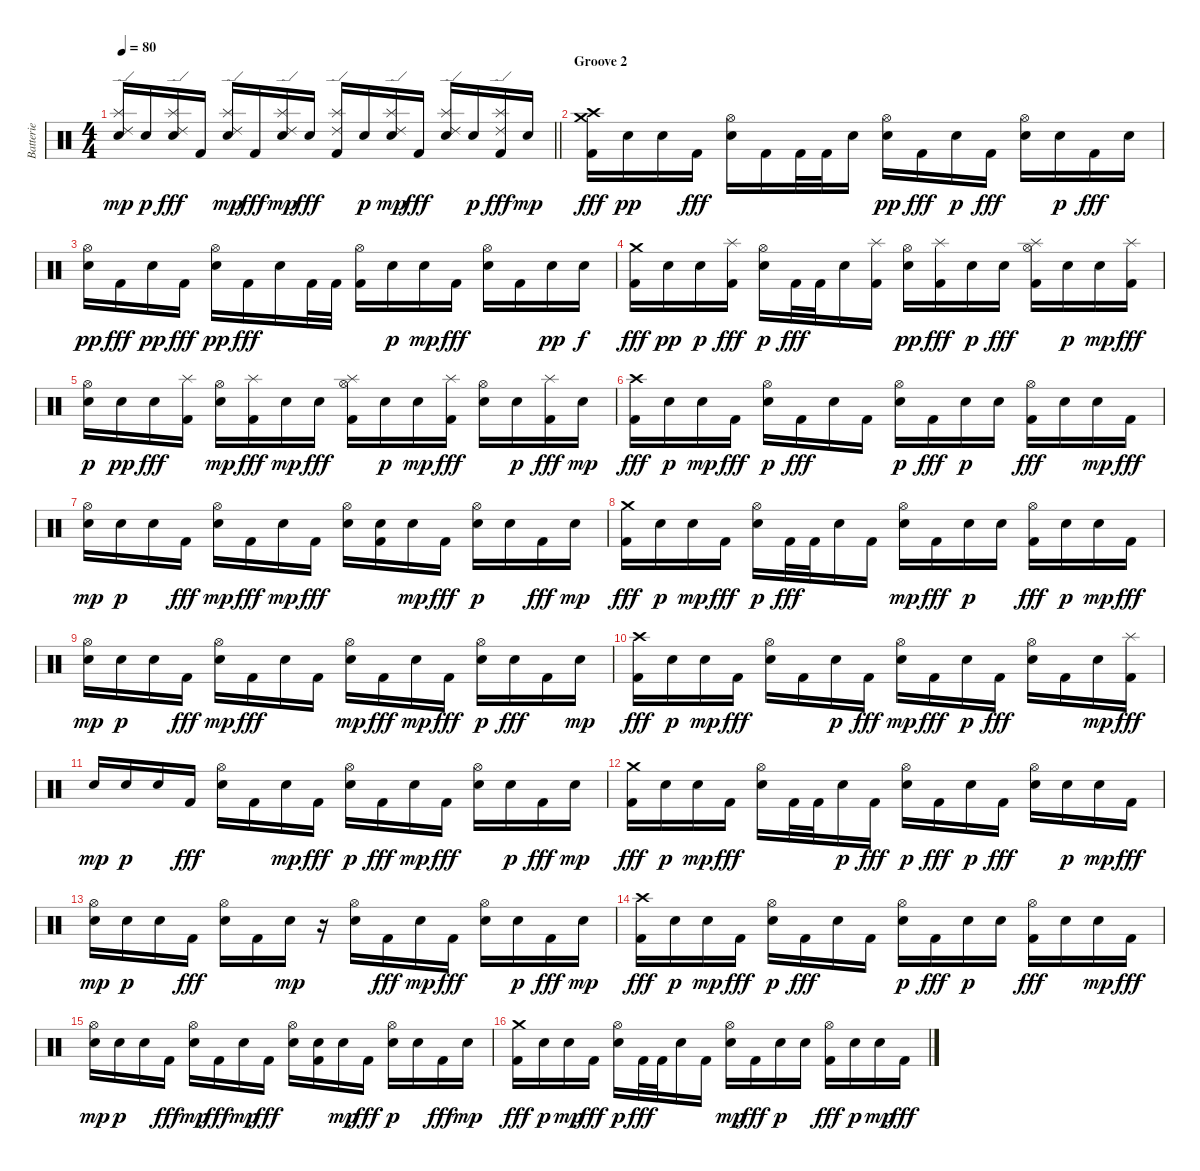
\track ("Batterie" "Batterie") {instrument percussion}
\staff {score}
\articulation defaults
\ts (4 4)
\tempo 80
\clef neutral
\barLineRight lightlight
\ks c
("Ride (edge) 2" "Splash (hit)" "Electric Snare (hit)").16{dy mp} "Electric Snare (hit)".16{dy p} ("Ride (edge) 2" "Splash (hit)" "Electric Snare (hit)").16{dy fff} "Kick (hit) 2".16 ("Ride (edge) 2" "Splash (hit)" "Electric Snare (hit)").16{dy mp} "Kick (hit) 2".16{dy fff} ("Ride (edge) 2" "Splash (hit)" "Electric Snare (hit)").16{dy mp} "Electric Snare (hit)".16{dy fff} ("Ride (edge) 2" "Splash (hit)" "Kick (hit) 2").16 "Electric Snare (hit)".16{dy p} ("Ride (edge) 2" "Splash (hit)" "Electric Snare (hit)").16{dy mp} "Kick (hit) 2".16{dy fff} ("Ride (edge) 2" "Splash (hit)" "Electric Snare (hit)").16 "Electric Snare (hit)".16{dy p} ("Ride (edge) 2" "Splash (hit)" "Kick (hit) 2").16{dy fff} "Electric Snare (hit)".16{dy mp} |
\section ("" "Groove 2")
("Crash high (hit)" "Crash medium (hit)" "Kick (hit) 2").16{dy fff} "Electric Snare (hit)".16{dy pp} "Electric Snare (hit)".16 "Kick (hit) 2".16{dy fff} ("Hi-Hat (open)" "Electric Snare (hit)").16 "Kick (hit) 2".16 "Kick (hit) 2".32 "Kick (hit) 2".32 "Electric Snare (hit)".16 ("Hi-Hat (open)" "Electric Snare (hit)").16{dy pp} "Kick (hit) 2".16{dy fff} "Electric Snare (hit)".16{dy p} "Kick (hit) 2".16{dy fff} ("Hi-Hat (open)" "Electric Snare (hit)").16 "Electric Snare (hit)".16{dy p} "Kick (hit) 2".16{dy fff} "Electric Snare (hit)".16 |
("Hi-Hat (open)" "Electric Snare (hit)").16{dy pp} "Kick (hit) 2".16{dy fff} "Electric Snare (hit)".16{dy pp} "Kick (hit) 2".16{dy fff} ("Hi-Hat (open)" "Electric Snare (hit)").16{dy pp} "Kick (hit) 2".16{dy fff} "Electric Snare (hit)".16 "Kick (hit) 2".32 "Kick (hit) 2".32 ("Hi-Hat (open)" "Kick (hit) 2").16 "Electric Snare (hit)".16{dy p} "Electric Snare (hit)".16{dy mp} "Kick (hit) 2".16{dy fff} ("Hi-Hat (open)" "Electric Snare (hit)").16 "Kick (hit) 2".16 "Electric Snare (hit)".16{dy pp} "Electric Snare (hit)".16{dy f} |
("Crash medium (hit)" "Kick (hit) 2").16{dy fff} "Electric Snare (hit)".16{dy pp} "Electric Snare (hit)".16{dy p} ("Splash (hit)" "Kick (hit) 2").16{dy fff} ("Hi-Hat (open)" "Electric Snare (hit)").16{dy p} "Kick (hit) 2".32{dy fff} "Kick (hit) 2".32 "Electric Snare (hit)".16 ("Splash (hit)" "Kick (hit) 2").16 ("Hi-Hat (open)" "Electric Snare (hit)").16{dy pp} ("Splash (hit)" "Kick (hit) 2").16{dy fff} "Electric Snare (hit)".16{dy p} "Electric Snare (hit)".16{dy fff} ("Hi-Hat (open)" "Splash (hit)" "Kick (hit) 2").16 "Electric Snare (hit)".16{dy p} "Electric Snare (hit)".16{dy mp} ("Splash (hit)" "Kick (hit) 2").16{dy fff} |
("Hi-Hat (open)" "Electric Snare (hit)").16{dy p} "Electric Snare (hit)".16{dy pp} "Electric Snare (hit)".16{dy fff} ("Splash (hit)" "Kick (hit) 2").16 ("Hi-Hat (open)" "Electric Snare (hit)").16{dy mp} ("Splash (hit)" "Kick (hit) 2").16{dy fff} "Electric Snare (hit)".16{dy mp} "Electric Snare (hit)".16{dy fff} ("Hi-Hat (open)" "Splash (hit)" "Kick (hit) 2").16 "Electric Snare (hit)".16{dy p} "Electric Snare (hit)".16{dy mp} ("Splash (hit)" "Kick (hit) 2").16{dy fff} ("Hi-Hat (open)" "Electric Snare (hit)").16 "Electric Snare (hit)".16{dy p} ("Splash (hit)" "Kick (hit) 2").16{dy fff} "Electric Snare (hit)".16{dy mp} |
("Crash high (hit)" "Kick (hit) 2").16{dy fff} "Electric Snare (hit)".16{dy p} "Electric Snare (hit)".16{dy mp} "Kick (hit) 2".16{dy fff} ("Hi-Hat (open)" "Electric Snare (hit)").16{dy p} "Kick (hit) 2".16{dy fff} "Electric Snare (hit)".16 "Kick (hit) 2".16 ("Hi-Hat (open)" "Electric Snare (hit)").16{dy p} "Kick (hit) 2".16{dy fff} "Electric Snare (hit)".16{dy p} "Electric Snare (hit)".16 ("Hi-Hat (open)" "Kick (hit) 2").16{dy fff} "Electric Snare (hit)".16 "Electric Snare (hit)".16{dy mp} "Kick (hit) 2".16{dy fff} |
("Hi-Hat (open)" "Electric Snare (hit)").16{dy mp} "Electric Snare (hit)".16{dy p} "Electric Snare (hit)".16 "Kick (hit) 2".16{dy fff} ("Hi-Hat (open)" "Electric Snare (hit)").16{dy mp} "Kick (hit) 2".16{dy fff} "Electric Snare (hit)".16{dy mp} "Kick (hit) 2".16{dy fff} ("Hi-Hat (open)" "Electric Snare (hit)").16 ("Electric Snare (hit)" "Kick (hit) 2").16 "Electric Snare (hit)".16{dy mp} "Kick (hit) 2".16{dy fff} ("Hi-Hat (open)" "Electric Snare (hit)").16{dy p} "Electric Snare (hit)".16 "Kick (hit) 2".16{dy fff} "Electric Snare (hit)".16{dy mp} |
("Crash medium (hit)" "Kick (hit) 2").16{dy fff} "Electric Snare (hit)".16{dy p} "Electric Snare (hit)".16{dy mp} "Kick (hit) 2".16{dy fff} ("Hi-Hat (open)" "Electric Snare (hit)").16{dy p} "Kick (hit) 2".32{dy fff} "Kick (hit) 2".32 "Electric Snare (hit)".16 "Kick (hit) 2".16 ("Hi-Hat (open)" "Electric Snare (hit)").16{dy mp} "Kick (hit) 2".16{dy fff} "Electric Snare (hit)".16{dy p} "Electric Snare (hit)".16 ("Hi-Hat (open)" "Kick (hit) 2").16{dy fff} "Electric Snare (hit)".16{dy p} "Electric Snare (hit)".16{dy mp} "Kick (hit) 2".16{dy fff} |
("Hi-Hat (open)" "Electric Snare (hit)").16{dy mp} "Electric Snare (hit)".16{dy p} "Electric Snare (hit)".16 "Kick (hit) 2".16{dy fff} ("Hi-Hat (open)" "Electric Snare (hit)").16{dy mp} "Kick (hit) 2".16{dy fff} "Electric Snare (hit)".16 "Kick (hit) 2".16 ("Hi-Hat (open)" "Electric Snare (hit)").16{dy mp} "Kick (hit) 2".16{dy fff} "Electric Snare (hit)".16{dy mp} "Kick (hit) 2".16{dy fff} ("Hi-Hat (open)" "Electric Snare (hit)").16{dy p} "Electric Snare (hit)".16{dy fff} "Kick (hit) 2".16 "Electric Snare (hit)".16{dy mp} |
("Crash high (hit)" "Kick (hit) 2").16{dy fff} "Electric Snare (hit)".16{dy p} "Electric Snare (hit)".16{dy mp} "Kick (hit) 2".16{dy fff} ("Hi-Hat (open)" "Electric Snare (hit)").16 "Kick (hit) 2".16 "Electric Snare (hit)".16{dy p} "Kick (hit) 2".16{dy fff} ("Hi-Hat (open)" "Electric Snare (hit)").16{dy mp} "Kick (hit) 2".16{dy fff} "Electric Snare (hit)".16{dy p} "Kick (hit) 2".16{dy fff} ("Hi-Hat (open)" "Electric Snare (hit)").16 "Kick (hit) 2".16 "Electric Snare (hit)".16{dy mp} ("Splash (hit)" "Kick (hit) 2").16{dy fff} |
"Electric Snare (hit)".16{dy mp} "Electric Snare (hit)".16{dy p} "Electric Snare (hit)".16 "Kick (hit) 2".16{dy fff} ("Hi-Hat (open)" "Electric Snare (hit)").16 "Kick (hit) 2".16 "Electric Snare (hit)".16{dy mp} "Kick (hit) 2".16{dy fff} ("Hi-Hat (open)" "Electric Snare (hit)").16{dy p} "Kick (hit) 2".16{dy fff} "Electric Snare (hit)".16{dy mp} "Kick (hit) 2".16{dy fff} ("Hi-Hat (open)" "Electric Snare (hit)").16 "Electric Snare (hit)".16{dy p} "Kick (hit) 2".16{dy fff} "Electric Snare (hit)".16{dy mp} |
("Crash medium (hit)" "Kick (hit) 2").16{dy fff} "Electric Snare (hit)".16{dy p} "Electric Snare (hit)".16{dy mp} "Kick (hit) 2".16{dy fff} ("Hi-Hat (open)" "Electric Snare (hit)").16 "Kick (hit) 2".32 "Kick (hit) 2".32 "Electric Snare (hit)".16{dy p} "Kick (hit) 2".16{dy fff} ("Hi-Hat (open)" "Electric Snare (hit)").16{dy p} "Kick (hit) 2".16{dy fff} "Electric Snare (hit)".16{dy p} "Kick (hit) 2".16{dy fff} ("Hi-Hat (open)" "Electric Snare (hit)").16 "Electric Snare (hit)".16{dy p} "Electric Snare (hit)".16{dy mp} "Kick (hit) 2".16{dy fff} |
("Hi-Hat (open)" "Electric Snare (hit)").16{dy mp} "Electric Snare (hit)".16{dy p} "Electric Snare (hit)".16 "Kick (hit) 2".16{dy fff} ("Hi-Hat (open)" "Electric Snare (hit)").16 "Kick (hit) 2".16 "Electric Snare (hit)".16{dy mp} r.16 ("Hi-Hat (open)" "Electric Snare (hit)").16 "Kick (hit) 2".16{dy fff} "Electric Snare (hit)".16{dy mp} "Kick (hit) 2".16{dy fff} ("Hi-Hat (open)" "Electric Snare (hit)").16 "Electric Snare (hit)".16{dy p} "Kick (hit) 2".16{dy fff} "Electric Snare (hit)".16{dy mp} |
("Crash high (hit)" "Kick (hit) 2").16{dy fff} "Electric Snare (hit)".16{dy p} "Electric Snare (hit)".16{dy mp} "Kick (hit) 2".16{dy fff} ("Hi-Hat (open)" "Electric Snare (hit)").16{dy p} "Kick (hit) 2".16{dy fff} "Electric Snare (hit)".16 "Kick (hit) 2".16 ("Hi-Hat (open)" "Electric Snare (hit)").16{dy p} "Kick (hit) 2".16{dy fff} "Electric Snare (hit)".16{dy p} "Electric Snare (hit)".16 ("Hi-Hat (open)" "Kick (hit) 2").16{dy fff} "Electric Snare (hit)".16 "Electric Snare (hit)".16{dy mp} "Kick (hit) 2".16{dy fff} |
("Hi-Hat (open)" "Electric Snare (hit)").16{dy mp} "Electric Snare (hit)".16{dy p} "Electric Snare (hit)".16 "Kick (hit) 2".16{dy fff} ("Hi-Hat (open)" "Electric Snare (hit)").16{dy mp} "Kick (hit) 2".16{dy fff} "Electric Snare (hit)".16{dy mp} "Kick (hit) 2".16{dy fff} ("Hi-Hat (open)" "Electric Snare (hit)").16 ("Electric Snare (hit)" "Kick (hit) 2").16 "Electric Snare (hit)".16{dy mp} "Kick (hit) 2".16{dy fff} ("Hi-Hat (open)" "Electric Snare (hit)").16{dy p} "Electric Snare (hit)".16 "Kick (hit) 2".16{dy fff} "Electric Snare (hit)".16{dy mp} |
("Crash medium (hit)" "Kick (hit) 2").16{dy fff} "Electric Snare (hit)".16{dy p} "Electric Snare (hit)".16{dy mp} "Kick (hit) 2".16{dy fff} ("Hi-Hat (open)" "Electric Snare (hit)").16{dy p} "Kick (hit) 2".32{dy fff} "Kick (hit) 2".32 "Electric Snare (hit)".16 "Kick (hit) 2".16 ("Hi-Hat (open)" "Electric Snare (hit)").16{dy mp} "Kick (hit) 2".16{dy fff} "Electric Snare (hit)".16{dy p} "Electric Snare (hit)".16 ("Hi-Hat (open)" "Kick (hit) 2").16{dy fff} "Electric Snare (hit)".16{dy p} "Electric Snare (hit)".16{dy mp} "Kick (hit) 2".16{dy fff}
